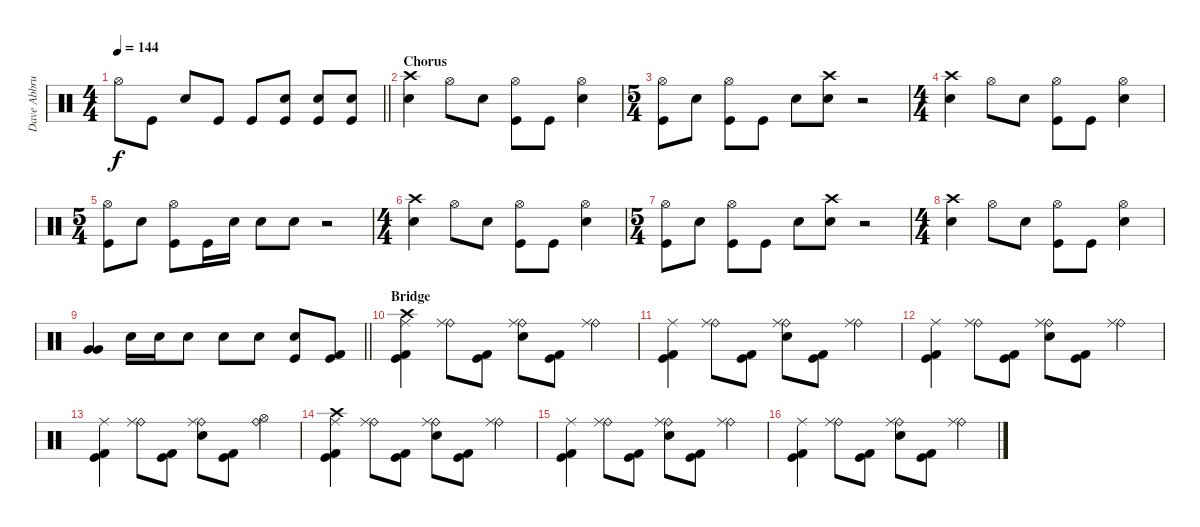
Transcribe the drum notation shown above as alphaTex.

\track ("Dave Abbruzzese" "Dave Abbru") {instrument percussion}
\staff {score}
\articulation defaults
\ts (4 4)
\tempo 144
\clef neutral
\barLineRight lightlight
\ks c "Hi-Hat (open)".8{dy f} "Kick (hit)".8 "Electric Snare (hit)".8 "Kick (hit)".8 "Kick (hit)".8
("Electric Snare (hit)" "Kick (hit)").8 ("Electric Snare (hit)" "Kick (hit)").8 ("Electric Snare (hit)" "Kick (hit)").8 |
\section ("" "Chorus")
("Crash high (hit)" "Electric Snare (hit)").4 "Hi-Hat (open)".8 "Electric Snare (hit)".8 ("Hi-Hat (open)" "Kick (hit)").8 "Kick (hit)".8 ("Hi-Hat (open)" "Electric Snare (hit)").4 |
\ts (5 4)
("Hi-Hat (open)" "Kick (hit)").8 "Electric Snare (hit)".8 ("Hi-Hat (open)" "Kick (hit)").8 "Kick (hit)".8 "Electric Snare (hit)".8 ("Crash high (hit)" "Electric Snare (hit)").8 r.2 |
\ts (4 4)
("Crash high (hit)" "Electric Snare (hit)").4 "Hi-Hat (open)".8 "Electric Snare (hit)".8 ("Hi-Hat (open)" "Kick (hit)").8 "Kick (hit)".8 ("Hi-Hat (open)" "Electric Snare (hit)").4 |
\ts (5 4)
("Hi-Hat (open)" "Kick (hit)").8 "Electric Snare (hit)".8 ("Hi-Hat (open)" "Kick (hit)").8 "Kick (hit)".16 "Electric Snare (hit)".16 "Electric Snare (hit)".8 "Electric Snare (hit)".8 r.2 |
\ts (4 4)
("Crash high (hit)" "Electric Snare (hit)").4 "Hi-Hat (open)".8 "Electric Snare (hit)".8 ("Hi-Hat (open)" "Kick (hit)").8 "Kick (hit)".8 ("Hi-Hat (open)" "Electric Snare (hit)").4 |
\ts (5 4)
("Hi-Hat (open)" "Kick (hit)").8 "Electric Snare (hit)".8 ("Hi-Hat (open)" "Kick (hit)").8 "Kick (hit)".8 "Electric Snare (hit)".8 ("Crash high (hit)" "Electric Snare (hit)").8 r.2 |
\ts (4 4)
("Crash high (hit)" "Electric Snare (hit)").4 "Hi-Hat (open)".8 "Electric Snare (hit)".8 ("Hi-Hat (open)" "Kick (hit)").8 "Kick (hit)".8 ("Hi-Hat (open)" "Electric Snare (hit)").4 |
\barLineRight lightlight
("Very Low Tom (hit)" "Very Low Tom (hit)").4 "Electric Snare (hit)".16 "Electric Snare (hit)".16 "Electric Snare (hit)".8 "Electric Snare (hit)".8 "Electric Snare (hit)".8 ("Electric Snare (hit)" "Kick (hit)").8 ("Kick (hit)" "Kick (hit) 2").8 |
\section ("" "Bridge")
("Crash high (hit)" "Ride (middle)" "Kick (hit)" "Kick (hit) 2").4 ("Ride (bell)" "Ride (middle)").8 ("Kick (hit)" "Kick (hit) 2").8 ("Electric Snare (hit)" "Ride (bell)" "Ride (middle)").8 ("Kick (hit)" "Kick (hit) 2").8 ("Ride (bell)" "Ride (middle)").4 |
("Ride (middle)" "Kick (hit)" "Kick (hit) 2").4 ("Ride (bell)" "Ride (middle)").8 ("Kick (hit)" "Kick (hit) 2").8 ("Electric Snare (hit)" "Ride (bell)" "Ride (middle)").8 ("Kick (hit)" "Kick (hit) 2").8 ("Ride (bell)" "Ride (middle)").4 |
("Ride (middle)" "Kick (hit)" "Kick (hit) 2").4 ("Ride (bell)" "Ride (middle)").8 ("Kick (hit)" "Kick (hit) 2").8 ("Electric Snare (hit)" "Ride (bell)" "Ride (middle)").8 ("Kick (hit)" "Kick (hit) 2").8 ("Ride (bell)" "Ride (middle)").4 |
("Ride (middle)" "Kick (hit)" "Kick (hit) 2").4 ("Ride (bell)" "Ride (middle)").8 ("Kick (hit)" "Kick (hit) 2").8 ("Electric Snare (hit)" "Ride (bell)" "Ride (middle)").8 ("Kick (hit)" "Kick (hit) 2").8 ("Ride (bell)" "Hi-Hat (open)").4 |
("Crash high (hit)" "Ride (middle)" "Kick (hit)" "Kick (hit) 2").4 ("Ride (bell)" "Ride (middle)").8 ("Kick (hit)" "Kick (hit) 2").8 ("Electric Snare (hit)" "Ride (bell)" "Ride (middle)").8 ("Kick (hit)" "Kick (hit) 2").8 ("Ride (bell)" "Ride (middle)").4 |
("Ride (middle)" "Kick (hit)" "Kick (hit) 2").4 ("Ride (bell)" "Ride (middle)").8 ("Kick (hit)" "Kick (hit) 2").8 ("Electric Snare (hit)" "Ride (bell)" "Ride (middle)").8 ("Kick (hit)" "Kick (hit) 2").8 ("Ride (bell)" "Ride (middle)").4 |
("Ride (middle)" "Kick (hit)" "Kick (hit) 2").4 ("Ride (bell)" "Ride (middle)").8 ("Kick (hit)" "Kick (hit) 2").8 ("Electric Snare (hit)" "Ride (bell)" "Ride (middle)").8 ("Kick (hit)" "Kick (hit) 2").8 ("Ride (bell)" "Ride (middle)").4
